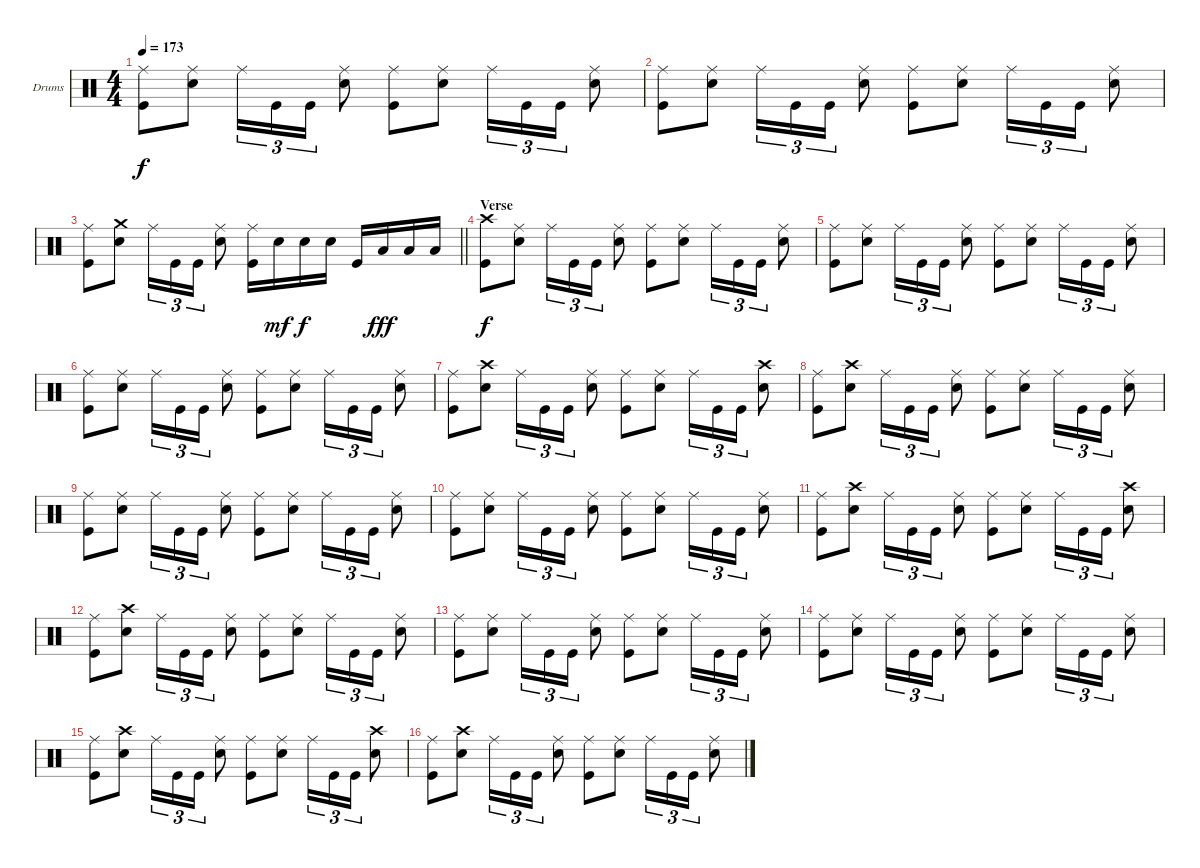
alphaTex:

\bracketExtendMode groupsimilarinstruments
\firstSystemTrackNameOrientation horizontal
\otherSystemsTrackNameOrientation horizontal
\track ("Drums" "Drums") {instrument percussion}
\staff {score}
\articulation defaults
\ts (4 4)
\tempo 173
\clef neutral
\ks c
("Kick (hit)" "Ride (middle)").8{dy f} ("Snare (hit) 2" "Ride (middle)").8 "Ride (middle)".16{tu (3 2)} "Kick (hit)".16{tu (3 2)} "Kick (hit)".16{tu (3 2)} ("Snare (hit) 2" "Ride (middle)").8 ("Kick (hit)" "Ride (middle)").8 ("Snare (hit) 2" "Ride (middle)").8 "Ride (middle)".16{tu (3 2)} "Kick (hit)".16{tu (3 2)} "Kick (hit)".16{tu (3 2)} ("Snare (hit) 2" "Ride (middle)").8 |
("Kick (hit)" "Ride (middle)").8 ("Snare (hit) 2" "Ride (middle)").8 "Ride (middle)".16{tu (3 2)} "Kick (hit)".16{tu (3 2)} "Kick (hit)".16{tu (3 2)} ("Snare (hit) 2" "Ride (middle)").8 ("Kick (hit)" "Ride (middle)").8 ("Snare (hit) 2" "Ride (middle)").8 "Ride (middle)".16{tu (3 2)} "Kick (hit)".16{tu (3 2)} "Kick (hit)".16{tu (3 2)} ("Snare (hit) 2" "Ride (middle)").8 |
\barLineRight lightlight
("Kick (hit)" "Ride (middle)").8 ("Snare (hit) 2" "Crash medium (hit)").8 "Ride (middle)".16{tu (3 2)} "Kick (hit)".16{tu (3 2)} "Kick (hit)".16{tu (3 2)} ("Snare (hit) 2" "Ride (middle)").8 ("Kick (hit)" "Ride (middle)").16 "Snare (hit) 2".16{dy mf} "Snare (hit) 2".16{dy f} "Snare (hit) 2".16 "Kick (hit)".16 "Low Tom (hit)".16{dy fff} "Low Tom (hit)".16 "Low Tom (hit)".16 |
\section ("" "Verse")
("Crash high (hit)" "Kick (hit)").8{dy f} ("Snare (hit) 2" "Ride (middle)").8 "Ride (middle)".16{tu (3 2)} "Kick (hit)".16{tu (3 2)} "Kick (hit)".16{tu (3 2)} ("Snare (hit) 2" "Ride (middle)").8 ("Kick (hit)" "Ride (middle)").8 ("Snare (hit) 2" "Ride (middle)").8 "Ride (middle)".16{tu (3 2)} "Kick (hit)".16{tu (3 2)} "Kick (hit)".16{tu (3 2)} ("Snare (hit) 2" "Ride (middle)").8 |
("Kick (hit)" "Ride (middle)").8 ("Snare (hit) 2" "Ride (middle)").8 "Ride (middle)".16{tu (3 2)} "Kick (hit)".16{tu (3 2)} "Kick (hit)".16{tu (3 2)} ("Snare (hit) 2" "Ride (middle)").8 ("Kick (hit)" "Ride (middle)").8 ("Snare (hit) 2" "Ride (middle)").8 "Ride (middle)".16{tu (3 2)} "Kick (hit)".16{tu (3 2)} "Kick (hit)".16{tu (3 2)} ("Snare (hit) 2" "Ride (middle)").8 |
("Kick (hit)" "Ride (middle)").8 ("Snare (hit) 2" "Ride (middle)").8 "Ride (middle)".16{tu (3 2)} "Kick (hit)".16{tu (3 2)} "Kick (hit)".16{tu (3 2)} ("Snare (hit) 2" "Ride (middle)").8 ("Kick (hit)" "Ride (middle)").8 ("Snare (hit) 2" "Ride (middle)").8 "Ride (middle)".16{tu (3 2)} "Kick (hit)".16{tu (3 2)} "Kick (hit)".16{tu (3 2)} ("Snare (hit) 2" "Ride (middle)").8 |
("Kick (hit)" "Ride (middle)").8 ("Snare (hit) 2" "Crash high (hit)").8 "Ride (middle)".16{tu (3 2)} "Kick (hit)".16{tu (3 2)} "Kick (hit)".16{tu (3 2)} ("Snare (hit) 2" "Ride (middle)").8 ("Kick (hit)" "Ride (middle)").8 ("Snare (hit) 2" "Ride (middle)").8 "Ride (middle)".16{tu (3 2)} "Kick (hit)".16{tu (3 2)} "Kick (hit)".16{tu (3 2)} ("Snare (hit) 2" "Crash high (hit)").8 |
("Kick (hit)" "Ride (middle)").8 ("Snare (hit) 2" "Crash high (hit)").8 "Ride (middle)".16{tu (3 2)} "Kick (hit)".16{tu (3 2)} "Kick (hit)".16{tu (3 2)} ("Snare (hit) 2" "Ride (middle)").8 ("Kick (hit)" "Ride (middle)").8 ("Snare (hit) 2" "Ride (middle)").8 "Ride (middle)".16{tu (3 2)} "Kick (hit)".16{tu (3 2)} "Kick (hit)".16{tu (3 2)} ("Snare (hit) 2" "Ride (middle)").8 |
("Kick (hit)" "Ride (middle)").8 ("Snare (hit) 2" "Ride (middle)").8 "Ride (middle)".16{tu (3 2)} "Kick (hit)".16{tu (3 2)} "Kick (hit)".16{tu (3 2)} ("Snare (hit) 2" "Ride (middle)").8 ("Kick (hit)" "Ride (middle)").8 ("Snare (hit) 2" "Ride (middle)").8 "Ride (middle)".16{tu (3 2)} "Kick (hit)".16{tu (3 2)} "Kick (hit)".16{tu (3 2)} ("Snare (hit) 2" "Ride (middle)").8 |
("Kick (hit)" "Ride (middle)").8 ("Snare (hit) 2" "Ride (middle)").8 "Ride (middle)".16{tu (3 2)} "Kick (hit)".16{tu (3 2)} "Kick (hit)".16{tu (3 2)} ("Snare (hit) 2" "Ride (middle)").8 ("Kick (hit)" "Ride (middle)").8 ("Snare (hit) 2" "Ride (middle)").8 "Ride (middle)".16{tu (3 2)} "Kick (hit)".16{tu (3 2)} "Kick (hit)".16{tu (3 2)} ("Snare (hit) 2" "Ride (middle)").8 |
("Kick (hit)" "Ride (middle)").8 ("Snare (hit) 2" "Crash high (hit)").8 "Ride (middle)".16{tu (3 2)} "Kick (hit)".16{tu (3 2)} "Kick (hit)".16{tu (3 2)} ("Snare (hit) 2" "Ride (middle)").8 ("Kick (hit)" "Ride (middle)").8 ("Snare (hit) 2" "Ride (middle)").8 "Ride (middle)".16{tu (3 2)} "Kick (hit)".16{tu (3 2)} "Kick (hit)".16{tu (3 2)} ("Snare (hit) 2" "Crash high (hit)").8 |
("Kick (hit)" "Ride (middle)").8 ("Snare (hit) 2" "Crash high (hit)").8 "Ride (middle)".16{tu (3 2)} "Kick (hit)".16{tu (3 2)} "Kick (hit)".16{tu (3 2)} ("Snare (hit) 2" "Ride (middle)").8 ("Kick (hit)" "Ride (middle)").8 ("Snare (hit) 2" "Ride (middle)").8 "Ride (middle)".16{tu (3 2)} "Kick (hit)".16{tu (3 2)} "Kick (hit)".16{tu (3 2)} ("Snare (hit) 2" "Ride (middle)").8 |
("Kick (hit)" "Ride (middle)").8 ("Snare (hit) 2" "Ride (middle)").8 "Ride (middle)".16{tu (3 2)} "Kick (hit)".16{tu (3 2)} "Kick (hit)".16{tu (3 2)} ("Snare (hit) 2" "Ride (middle)").8 ("Kick (hit)" "Ride (middle)").8 ("Snare (hit) 2" "Ride (middle)").8 "Ride (middle)".16{tu (3 2)} "Kick (hit)".16{tu (3 2)} "Kick (hit)".16{tu (3 2)} ("Snare (hit) 2" "Ride (middle)").8 |
("Kick (hit)" "Ride (middle)").8 ("Snare (hit) 2" "Ride (middle)").8 "Ride (middle)".16{tu (3 2)} "Kick (hit)".16{tu (3 2)} "Kick (hit)".16{tu (3 2)} ("Snare (hit) 2" "Ride (middle)").8 ("Kick (hit)" "Ride (middle)").8 ("Snare (hit) 2" "Ride (middle)").8 "Ride (middle)".16{tu (3 2)} "Kick (hit)".16{tu (3 2)} "Kick (hit)".16{tu (3 2)} ("Snare (hit) 2" "Ride (middle)").8 |
("Kick (hit)" "Ride (middle)").8 ("Snare (hit) 2" "Crash high (hit)").8 "Ride (middle)".16{tu (3 2)} "Kick (hit)".16{tu (3 2)} "Kick (hit)".16{tu (3 2)} ("Snare (hit) 2" "Ride (middle)").8 ("Kick (hit)" "Ride (middle)").8 ("Snare (hit) 2" "Ride (middle)").8 "Ride (middle)".16{tu (3 2)} "Kick (hit)".16{tu (3 2)} "Kick (hit)".16{tu (3 2)} ("Snare (hit) 2" "Crash high (hit)").8 |
("Kick (hit)" "Ride (middle)").8 ("Snare (hit) 2" "Crash high (hit)").8 "Ride (middle)".16{tu (3 2)} "Kick (hit)".16{tu (3 2)} "Kick (hit)".16{tu (3 2)} ("Snare (hit) 2" "Ride (middle)").8 ("Kick (hit)" "Ride (middle)").8 ("Snare (hit) 2" "Ride (middle)").8 "Ride (middle)".16{tu (3 2)} "Kick (hit)".16{tu (3 2)} "Kick (hit)".16{tu (3 2)} ("Snare (hit) 2" "Ride (middle)").8
